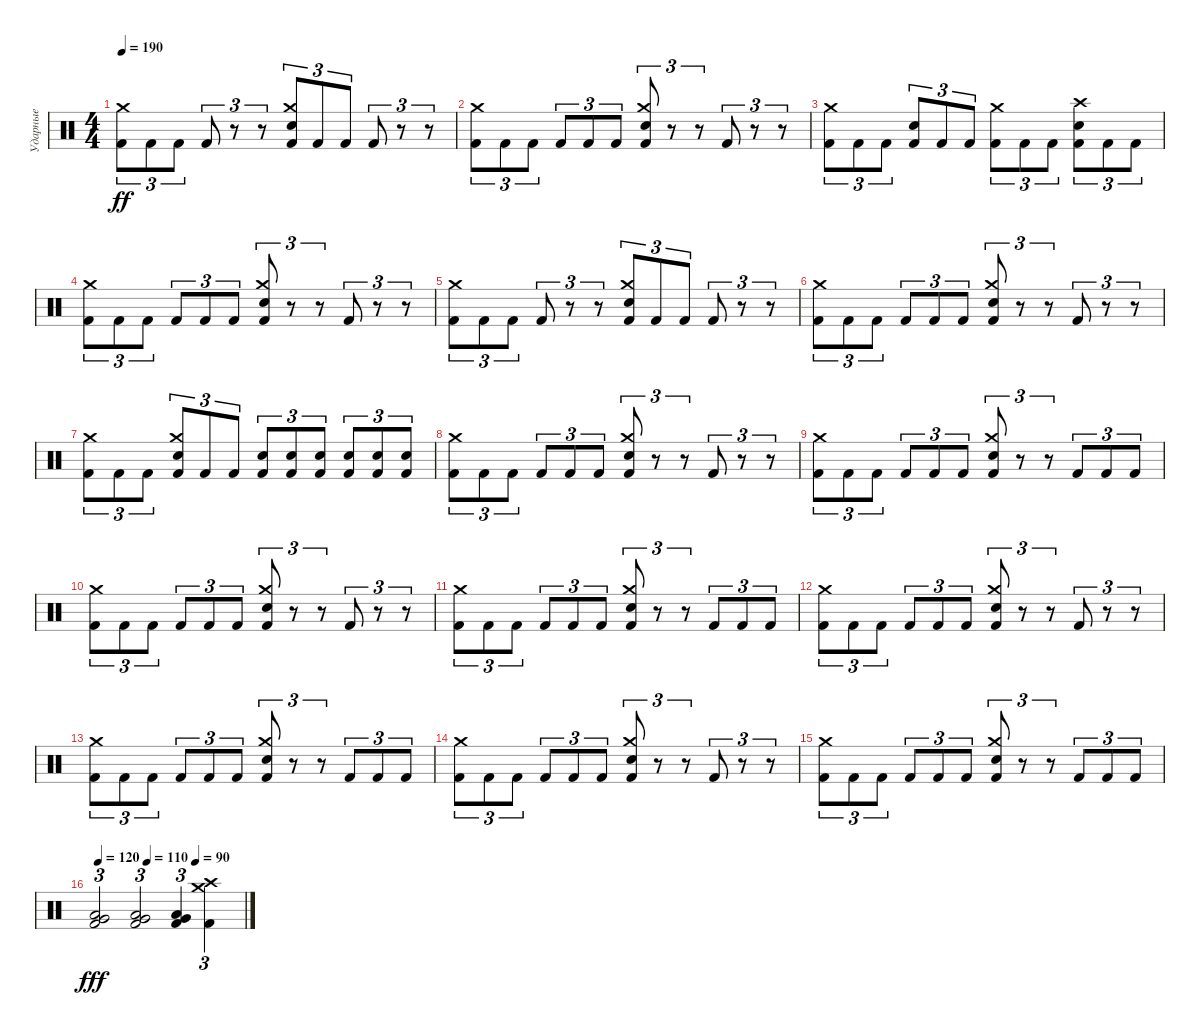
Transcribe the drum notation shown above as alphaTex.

\track ("Ударные" "Ударные") {instrument percussion}
\staff {score}
\articulation defaults
\ts (4 4)
\tempo 190
\clef neutral
\ks c
("Kick (hit) 2" "Crash medium (hit)").8{tu (3 2) dy ff} "Kick (hit) 2".8{tu (3 2)} "Kick (hit) 2".8{tu (3 2)} "Kick (hit) 2".8{tu (3 2)} r.8{tu (3 2)} r.8{tu (3 2)} ("Kick (hit) 2" "Snare (hit) 2" "Crash medium (hit)").8{tu (3 2)} "Kick (hit) 2".8{tu (3 2)} "Kick (hit) 2".8{tu (3 2)} "Kick (hit) 2".8{tu (3 2)} r.8{tu (3 2)} r.8{tu (3 2)} |
("Kick (hit) 2" "Crash medium (hit)").8{tu (3 2)} "Kick (hit) 2".8{tu (3 2)} "Kick (hit) 2".8{tu (3 2)} "Kick (hit) 2".8{tu (3 2)} "Kick (hit) 2".8{tu (3 2)} "Kick (hit) 2".8{tu (3 2)} ("Kick (hit) 2" "Snare (hit) 2" "Crash medium (hit)").8{tu (3 2)} r.8{tu (3 2)} r.8{tu (3 2)} "Kick (hit) 2".8{tu (3 2)} r.8{tu (3 2)} r.8{tu (3 2)} |
("Kick (hit) 2" "Crash medium (hit)").8{tu (3 2)} "Kick (hit) 2".8{tu (3 2)} "Kick (hit) 2".8{tu (3 2)} ("Kick (hit) 2" "Snare (hit) 2").8{tu (3 2)} "Kick (hit) 2".8{tu (3 2)} "Kick (hit) 2".8{tu (3 2)} ("Kick (hit) 2" "Crash medium (hit)").8{tu (3 2)} "Kick (hit) 2".8{tu (3 2)} "Kick (hit) 2".8{tu (3 2)} ("Kick (hit) 2" "Crash high (hit)" "Snare (hit) 2").8{tu (3 2)} "Kick (hit) 2".8{tu (3 2)} "Kick (hit) 2".8{tu (3 2)} |
("Kick (hit) 2" "Crash medium (hit)").8{tu (3 2)} "Kick (hit) 2".8{tu (3 2)} "Kick (hit) 2".8{tu (3 2)} "Kick (hit) 2".8{tu (3 2)} "Kick (hit) 2".8{tu (3 2)} "Kick (hit) 2".8{tu (3 2)} ("Kick (hit) 2" "Snare (hit) 2" "Crash medium (hit)").8{tu (3 2)} r.8{tu (3 2)} r.8{tu (3 2)} "Kick (hit) 2".8{tu (3 2)} r.8{tu (3 2)} r.8{tu (3 2)} |
("Kick (hit) 2" "Crash medium (hit)").8{tu (3 2)} "Kick (hit) 2".8{tu (3 2)} "Kick (hit) 2".8{tu (3 2)} "Kick (hit) 2".8{tu (3 2)} r.8{tu (3 2)} r.8{tu (3 2)} ("Kick (hit) 2" "Snare (hit) 2" "Crash medium (hit)").8{tu (3 2)} "Kick (hit) 2".8{tu (3 2)} "Kick (hit) 2".8{tu (3 2)} "Kick (hit) 2".8{tu (3 2)} r.8{tu (3 2)} r.8{tu (3 2)} |
("Kick (hit) 2" "Crash medium (hit)").8{tu (3 2)} "Kick (hit) 2".8{tu (3 2)} "Kick (hit) 2".8{tu (3 2)} "Kick (hit) 2".8{tu (3 2)} "Kick (hit) 2".8{tu (3 2)} "Kick (hit) 2".8{tu (3 2)} ("Kick (hit) 2" "Snare (hit) 2" "Crash medium (hit)").8{tu (3 2)} r.8{tu (3 2)} r.8{tu (3 2)} "Kick (hit) 2".8{tu (3 2)} r.8{tu (3 2)} r.8{tu (3 2)} |
("Kick (hit) 2" "Crash medium (hit)").8{tu (3 2)} "Kick (hit) 2".8{tu (3 2)} "Kick (hit) 2".8{tu (3 2)} ("Kick (hit) 2" "Snare (hit) 2" "Crash medium (hit)").8{tu (3 2)} "Kick (hit) 2".8{tu (3 2)} "Kick (hit) 2".8{tu (3 2)} ("Kick (hit) 2" "Snare (hit) 2").8{tu (3 2)} ("Kick (hit) 2" "Snare (hit) 2").8{tu (3 2)} ("Kick (hit) 2" "Snare (hit) 2").8{tu (3 2)} ("Kick (hit) 2" "Snare (hit) 2").8{tu (3 2)} ("Kick (hit) 2" "Snare (hit) 2").8{tu (3 2)} ("Kick (hit) 2" "Snare (hit) 2").8{tu (3 2)} |
("Kick (hit) 2" "Crash medium (hit)").8{tu (3 2)} "Kick (hit) 2".8{tu (3 2)} "Kick (hit) 2".8{tu (3 2)} "Kick (hit) 2".8{tu (3 2)} "Kick (hit) 2".8{tu (3 2)} "Kick (hit) 2".8{tu (3 2)} ("Kick (hit) 2" "Crash medium (hit)" "Snare (hit) 2").8{tu (3 2)} r.8{tu (3 2)} r.8{tu (3 2)} "Kick (hit) 2".8{tu (3 2)} r.8{tu (3 2)} r.8{tu (3 2)} |
("Kick (hit) 2" "Crash medium (hit)").8{tu (3 2)} "Kick (hit) 2".8{tu (3 2)} "Kick (hit) 2".8{tu (3 2)} "Kick (hit) 2".8{tu (3 2)} "Kick (hit) 2".8{tu (3 2)} "Kick (hit) 2".8{tu (3 2)} ("Kick (hit) 2" "Crash medium (hit)" "Snare (hit) 2").8{tu (3 2)} r.8{tu (3 2)} r.8{tu (3 2)} "Kick (hit) 2".8{tu (3 2)} "Kick (hit) 2".8{tu (3 2)} "Kick (hit) 2".8{tu (3 2)} |
("Kick (hit) 2" "Crash medium (hit)").8{tu (3 2)} "Kick (hit) 2".8{tu (3 2)} "Kick (hit) 2".8{tu (3 2)} "Kick (hit) 2".8{tu (3 2)} "Kick (hit) 2".8{tu (3 2)} "Kick (hit) 2".8{tu (3 2)} ("Kick (hit) 2" "Crash medium (hit)" "Snare (hit) 2").8{tu (3 2)} r.8{tu (3 2)} r.8{tu (3 2)} "Kick (hit) 2".8{tu (3 2)} r.8{tu (3 2)} r.8{tu (3 2)} |
("Kick (hit) 2" "Crash medium (hit)").8{tu (3 2)} "Kick (hit) 2".8{tu (3 2)} "Kick (hit) 2".8{tu (3 2)} "Kick (hit) 2".8{tu (3 2)} "Kick (hit) 2".8{tu (3 2)} "Kick (hit) 2".8{tu (3 2)} ("Kick (hit) 2" "Crash medium (hit)" "Snare (hit) 2").8{tu (3 2)} r.8{tu (3 2)} r.8{tu (3 2)} "Kick (hit) 2".8{tu (3 2)} "Kick (hit) 2".8{tu (3 2)} "Kick (hit) 2".8{tu (3 2)} |
("Kick (hit) 2" "Crash medium (hit)").8{tu (3 2)} "Kick (hit) 2".8{tu (3 2)} "Kick (hit) 2".8{tu (3 2)} "Kick (hit) 2".8{tu (3 2)} "Kick (hit) 2".8{tu (3 2)} "Kick (hit) 2".8{tu (3 2)} ("Kick (hit) 2" "Crash medium (hit)" "Snare (hit) 2").8{tu (3 2)} r.8{tu (3 2)} r.8{tu (3 2)} "Kick (hit) 2".8{tu (3 2)} r.8{tu (3 2)} r.8{tu (3 2)} |
("Kick (hit) 2" "Crash medium (hit)").8{tu (3 2)} "Kick (hit) 2".8{tu (3 2)} "Kick (hit) 2".8{tu (3 2)} "Kick (hit) 2".8{tu (3 2)} "Kick (hit) 2".8{tu (3 2)} "Kick (hit) 2".8{tu (3 2)} ("Kick (hit) 2" "Crash medium (hit)" "Snare (hit) 2").8{tu (3 2)} r.8{tu (3 2)} r.8{tu (3 2)} "Kick (hit) 2".8{tu (3 2)} "Kick (hit) 2".8{tu (3 2)} "Kick (hit) 2".8{tu (3 2)} |
("Kick (hit) 2" "Crash medium (hit)").8{tu (3 2)} "Kick (hit) 2".8{tu (3 2)} "Kick (hit) 2".8{tu (3 2)} "Kick (hit) 2".8{tu (3 2)} "Kick (hit) 2".8{tu (3 2)} "Kick (hit) 2".8{tu (3 2)} ("Kick (hit) 2" "Crash medium (hit)" "Snare (hit) 2").8{tu (3 2)} r.8{tu (3 2)} r.8{tu (3 2)} "Kick (hit) 2".8{tu (3 2)} r.8{tu (3 2)} r.8{tu (3 2)} |
("Kick (hit) 2" "Crash medium (hit)").8{tu (3 2)} "Kick (hit) 2".8{tu (3 2)} "Kick (hit) 2".8{tu (3 2)} "Kick (hit) 2".8{tu (3 2)} "Kick (hit) 2".8{tu (3 2)} "Kick (hit) 2".8{tu (3 2)} ("Kick (hit) 2" "Crash medium (hit)" "Snare (hit) 2").8{tu (3 2)} r.8{tu (3 2)} r.8{tu (3 2)} "Kick (hit) 2".8{tu (3 2)} "Kick (hit) 2".8{tu (3 2)} "Kick (hit) 2".8{tu (3 2)} |
\tempo 120
\tempo (110 0.3333333333333333)
\tempo (90 0.6666666666666666)
("Kick (hit) 2" "Low Tom (hit)" "Very Low Tom (hit)").2{tu (3 2) dy fff} ("Kick (hit) 2" "Low Tom (hit)" "Very Low Tom (hit)").2{tu (3 2)} ("Kick (hit) 2" "Low Tom (hit)" "Very Low Tom (hit)").4{tu (3 2)} ("Kick (hit) 2" "Crash high (hit)" "Crash medium (hit)").4{tu (3 2)}
